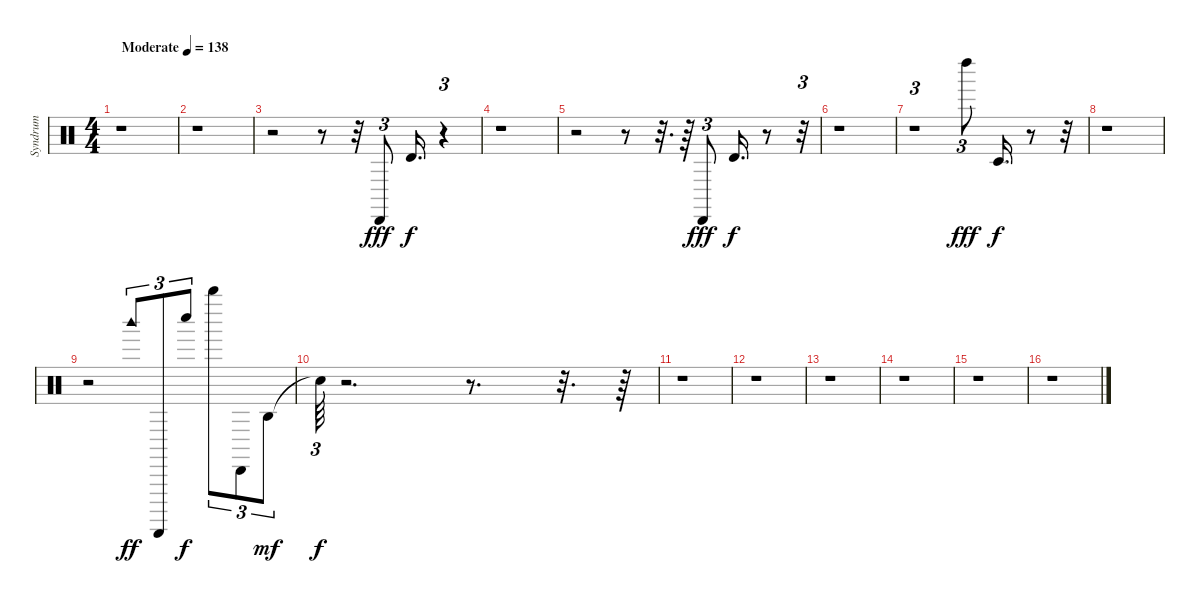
\track ("Syndrum" "Syndrum") {instrument percussion}
\staff {score}
\articulation defaults
\ts (4 4)
\tempo (138 "Moderate")
\clef neutral
\ks c
r.1{dy fff} |
r.1 |
r.2 r.8 r.32 "Cabasa (hit)".8{tu (3 2)} "Timbale high (hit)".16{d dy f} r.4{tu (3 2)} |
r.1 |
r.2 r.8 r.32{d} r.64 "Cabasa (hit)".8{tu (3 2) dy fff} "Timbale high (hit)".16{d dy f} r.8 r.32{tu (3 2)} |
r.1 |
r.1{tu (3 2)} "Left Maraca (hit)".8{tu (3 2) dy fff} "Timbale low (hit)".16{d dy f} r.8 r.32 |
r.1 |
r.2 "Woodblock high (hit)".8{tu (3 2) dy ff} "Guiro (scrap-return)".8{tu (3 2)} "Whistle low (hit)".8{tu (3 2) dy f} "Whistle high (hit)".8{tu (3 2)} "Cabasa (hit)".8{tu (3 2)} "Agogo high (hit)".8{tu (3 2) dy mf} |
"Snare (hit)"{t}.64{tu (3 2) dy f} r.2{d} r.8{d} r.32{d} r.64 |
r.1 |
r.1 |
r.1 |
r.1 |
r.1 |
r.1
